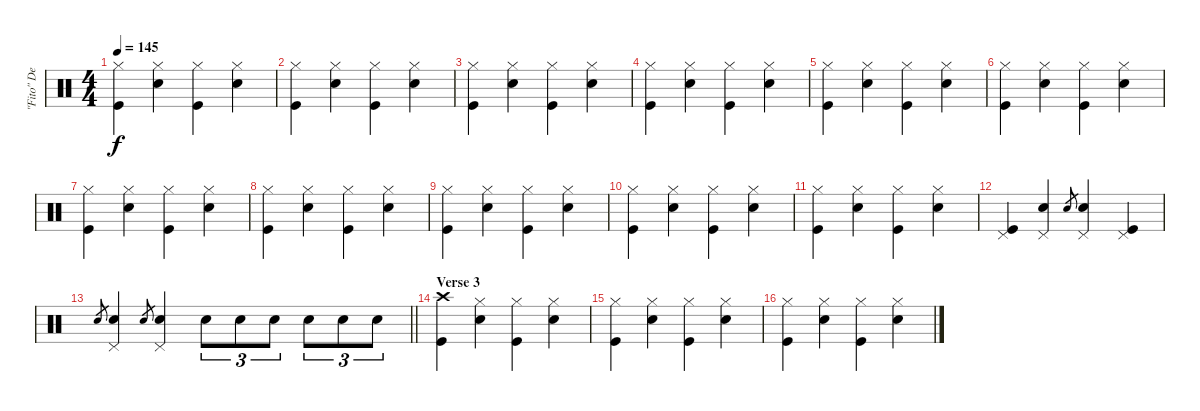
\track ("\"Fito\" De La Parra" "\"Fito\" De ") {instrument percussion}
\staff {score}
\articulation defaults
\ts (4 4)
\tempo 145
\clef neutral
\ks c
("Hi-Hat (closed)" "Kick (hit)").4{dy f} ("Hi-Hat (closed)" "Snare (hit) 2").4 ("Hi-Hat (closed)" "Kick (hit)").4 ("Hi-Hat (closed)" "Snare (hit) 2").4 |
("Hi-Hat (closed)" "Kick (hit)").4 ("Hi-Hat (closed)" "Snare (hit) 2").4 ("Hi-Hat (closed)" "Kick (hit)").4 ("Hi-Hat (closed)" "Snare (hit) 2").4 |
("Hi-Hat (closed)" "Kick (hit)").4 ("Hi-Hat (closed)" "Snare (hit) 2").4 ("Hi-Hat (closed)" "Kick (hit)").4 ("Hi-Hat (closed)" "Snare (hit) 2").4 |
("Hi-Hat (closed)" "Kick (hit)").4 ("Hi-Hat (closed)" "Snare (hit) 2").4 ("Hi-Hat (closed)" "Kick (hit)").4 ("Hi-Hat (closed)" "Snare (hit) 2").4 |
("Hi-Hat (closed)" "Kick (hit)").4 ("Hi-Hat (closed)" "Snare (hit) 2").4 ("Hi-Hat (closed)" "Kick (hit)").4 ("Hi-Hat (closed)" "Snare (hit) 2").4 |
("Hi-Hat (closed)" "Kick (hit)").4 ("Hi-Hat (closed)" "Snare (hit) 2").4 ("Hi-Hat (closed)" "Kick (hit)").4 ("Hi-Hat (closed)" "Snare (hit) 2").4 |
("Hi-Hat (closed)" "Kick (hit)").4 ("Hi-Hat (closed)" "Snare (hit) 2").4 ("Hi-Hat (closed)" "Kick (hit)").4 ("Hi-Hat (closed)" "Snare (hit) 2").4 |
("Hi-Hat (closed)" "Kick (hit)").4 ("Hi-Hat (closed)" "Snare (hit) 2").4 ("Hi-Hat (closed)" "Kick (hit)").4 ("Hi-Hat (closed)" "Snare (hit) 2").4 |
("Hi-Hat (closed)" "Kick (hit)").4 ("Hi-Hat (closed)" "Snare (hit) 2").4 ("Hi-Hat (closed)" "Kick (hit)").4 ("Hi-Hat (closed)" "Snare (hit) 2").4 |
("Hi-Hat (closed)" "Kick (hit)").4 ("Hi-Hat (closed)" "Snare (hit) 2").4 ("Hi-Hat (closed)" "Kick (hit)").4 ("Hi-Hat (closed)" "Snare (hit) 2").4 |
("Hi-Hat (closed)" "Kick (hit)").4 ("Hi-Hat (closed)" "Snare (hit) 2").4 ("Hi-Hat (closed)" "Kick (hit)").4 ("Hi-Hat (closed)" "Snare (hit) 2").4 |
("Pedal Hi-Hat (hit)" "Kick (hit)").4 ("Pedal Hi-Hat (hit)" "Snare (hit) 2").4 "Snare (hit) 2".8{gr} ("Pedal Hi-Hat (hit)" "Snare (hit) 2").4 ("Pedal Hi-Hat (hit)" "Kick (hit)").4 |
\barLineRight lightlight "Snare (hit) 2".8{gr}
("Pedal Hi-Hat (hit)" "Snare (hit) 2").4 "Snare (hit) 2".8{gr} ("Pedal Hi-Hat (hit)" "Snare (hit) 2").4 "Snare (hit) 2".8{tu (3 2)} "Snare (hit) 2".8{tu (3 2)} "Snare (hit) 2".8{tu (3 2)} "Snare (hit) 2".8{tu (3 2)} "Snare (hit) 2".8{tu (3 2)} "Snare (hit) 2".8{tu (3 2)} |
\section ("" "Verse 3")
("Crash high (hit)" "Kick (hit)").4 ("Hi-Hat (closed)" "Snare (hit) 2").4 ("Hi-Hat (closed)" "Kick (hit)").4 ("Hi-Hat (closed)" "Snare (hit) 2").4 |
("Hi-Hat (closed)" "Kick (hit)").4 ("Hi-Hat (closed)" "Snare (hit) 2").4 ("Hi-Hat (closed)" "Kick (hit)").4 ("Hi-Hat (closed)" "Snare (hit) 2").4 |
("Hi-Hat (closed)" "Kick (hit)").4 ("Hi-Hat (closed)" "Snare (hit) 2").4 ("Hi-Hat (closed)" "Kick (hit)").4 ("Hi-Hat (closed)" "Snare (hit) 2").4
